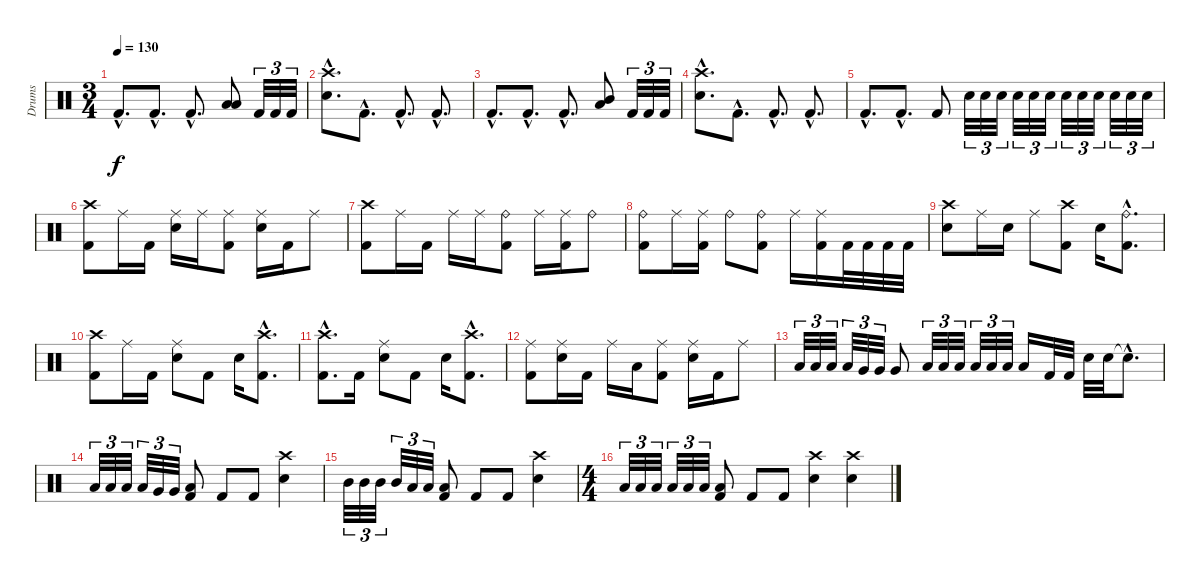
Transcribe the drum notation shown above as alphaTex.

\track ("Drums" "Drums") {instrument percussion}
\staff {score}
\articulation defaults
\ts (3 4)
\tempo 130
\clef neutral
\ks c "Kick (hit) 2"{hac}.8{d dy f} "Kick (hit) 2"{hac}.8{d} "Kick (hit) 2"{hac}.8{d}
("Low Tom (hit)" "Low Floor Tom (hit)").8 "Kick (hit) 2".32{tu (3 2)} "Kick (hit) 2".32{tu (3 2)} "Kick (hit) 2".32{tu (3 2)} |
("Crash high (hit)"{hac} "Snare (hit) 2"{hac}).8{d} "Kick (hit) 2"{hac}.8{d} "Kick (hit) 2"{hac}.8{d} "Kick (hit) 2"{hac}.8{d} |
"Kick (hit) 2"{hac}.8{d} "Kick (hit) 2"{hac}.8{d} "Kick (hit) 2"{hac}.8{d} ("Mid Tom (hit)" "Low Tom (hit)").8 "Kick (hit) 2".32{tu (3 2)} "Kick (hit) 2".32{tu (3 2)} "Kick (hit) 2".32{tu (3 2)} |
("Crash high (hit)"{hac} "Snare (hit) 2"{hac}).8{d} "Kick (hit) 2"{hac}.8{d} "Kick (hit) 2"{hac}.8{d} "Kick (hit) 2"{hac}.8{d} |
"Kick (hit) 2"{hac}.8{d} "Kick (hit) 2"{hac}.8{d} "Kick (hit) 2".8 "Snare (hit) 2".32{tu (3 2)} "Snare (hit) 2".32{tu (3 2)} "Snare (hit) 2".32{tu (3 2)} "Snare (hit) 2".32{tu (3 2)} "Snare (hit) 2".32{tu (3 2)} "Snare (hit) 2".32{tu (3 2)} "Snare (hit) 2".32{tu (3 2)} "Snare (hit) 2".32{tu (3 2)} "Snare (hit) 2".32{tu (3 2)} "Snare (hit) 2".32{tu (3 2)} "Snare (hit) 2".32{tu (3 2)} "Snare (hit) 2".32{tu (3 2)} |
("Crash high (hit)" "Kick (hit) 2").8 "Ride (middle)".16 "Kick (hit) 2".16 ("Ride (middle)" "Snare (hit) 2").16 "Ride (middle)".16 ("Ride (middle)" "Kick (hit) 2").8 ("Ride (middle)" "Snare (hit) 2").16 "Kick (hit) 2".16 "Ride (middle)".8 |
("Crash high (hit)" "Kick (hit) 2").8 "Ride (middle)".16 "Kick (hit) 2".16 "Ride (middle)".16 "Ride (middle)".16 ("Ride (bell)" "Kick (hit) 2").8 "Ride (middle)".16 ("Ride (middle)" "Kick (hit) 2").16 "Ride (bell)".8 |
("Ride (bell)" "Kick (hit) 2").8 "Ride (middle)".16 ("Ride (middle)" "Kick (hit) 2").16 "Ride (bell)".8 ("Ride (bell)" "Kick (hit) 2").8 "Ride (middle)".16 ("Ride (middle)" "Kick (hit) 2").16 "Kick (hit) 2".32 "Kick (hit) 2".32 "Kick (hit) 2".32 "Kick (hit) 2".32 |
("Crash high (hit)" "Snare (hit) 2").8 "Ride (middle)".16 "Snare (hit) 2".16 "Ride (middle)".8 ("Crash high (hit)" "Kick (hit) 2").8 "Snare (hit) 2".16 ("Ride (bell)"{hac} "Kick (hit) 2"{hac}).8{d} |
("Crash high (hit)" "Kick (hit) 2").8 "Ride (middle)".16 "Kick (hit) 2".16 ("Ride (middle)" "Snare (hit) 2").8 "Kick (hit) 2".8 "Snare (hit) 2".16 ("Crash high (hit)"{hac} "Kick (hit) 2"{hac}).8{d} |
("Crash high (hit)"{hac} "Kick (hit) 2"{hac}).8{d} "Kick (hit) 2".16 ("Ride (middle)" "Snare (hit) 2").8 "Kick (hit) 2".8 "Snare (hit) 2".16 ("Crash high (hit)"{hac} "Kick (hit) 2"{hac}).8{d} |
("Ride (middle)" "Kick (hit) 2").8 ("Ride (middle)" "Snare (hit) 2").16 "Kick (hit) 2".16 "Ride (middle)".16 "Low Tom (hit)".16 ("Ride (middle)" "Kick (hit) 2").8 ("Ride (middle)" "Snare (hit) 2").16 "Kick (hit) 2".16 "Ride (middle)".8 |
"Low Floor Tom (hit)".32{tu (3 2)} "Low Floor Tom (hit)".32{tu (3 2)} "Low Floor Tom (hit)".32{tu (3 2)} "Low Floor Tom (hit)".32{tu (3 2)} "Very Low Tom (hit)".32{tu (3 2)} "Very Low Tom (hit)".32{tu (3 2)} "Very Low Tom (hit)".8 "Low Floor Tom (hit)".32{tu (3 2)} "Low Floor Tom (hit)".32{tu (3 2)} "Low Floor Tom (hit)".32{tu (3 2)} "Low Floor Tom (hit)".32{tu (3 2)} "Low Floor Tom (hit)".32{tu (3 2)} "Low Floor Tom (hit)".32{tu (3 2)} "Low Tom (hit)".16 "Kick (hit) 2".32 "Kick (hit) 2".32 "Snare (hit) 2".32 "Snare (hit) 2".32 "Snare (hit)"{hac t}.8{d} |
"Low Floor Tom (hit)".32{tu (3 2)} "Low Floor Tom (hit)".32{tu (3 2)} "Low Floor Tom (hit)".32{tu (3 2)} "Low Floor Tom (hit)".32{tu (3 2)} "Very Low Tom (hit)".32{tu (3 2)} "Very Low Tom (hit)".32{tu (3 2)} ("Low Floor Tom (hit)" "Kick (hit) 2").8 "Kick (hit) 2".8 "Kick (hit) 2".8 ("Crash high (hit)" "Snare (hit) 2").4 |
"Mid Tom (hit)".32{tu (3 2)} "Mid Tom (hit)".32{tu (3 2)} "Mid Tom (hit)".32{tu (3 2)} "Mid Tom (hit)".32{tu (3 2)} "Low Tom (hit)".32{tu (3 2)} "Low Tom (hit)".32{tu (3 2)} ("Low Tom (hit)" "Kick (hit) 2").8 "Kick (hit) 2".8 "Kick (hit) 2".8 ("Crash high (hit)" "Snare (hit) 2").4 |
\ts (4 4)
"Low Floor Tom (hit)".32{tu (3 2)} "Low Floor Tom (hit)".32{tu (3 2)} "Low Floor Tom (hit)".32{tu (3 2)} "Low Floor Tom (hit)".32{tu (3 2)} "Low Floor Tom (hit)".32{tu (3 2)} "Low Floor Tom (hit)".32{tu (3 2)} ("Low Floor Tom (hit)" "Kick (hit) 2").8 "Kick (hit) 2".8 "Kick (hit) 2".8 ("Crash high (hit)" "Snare (hit) 2").4 ("Crash high (hit)" "Snare (hit) 2").4
